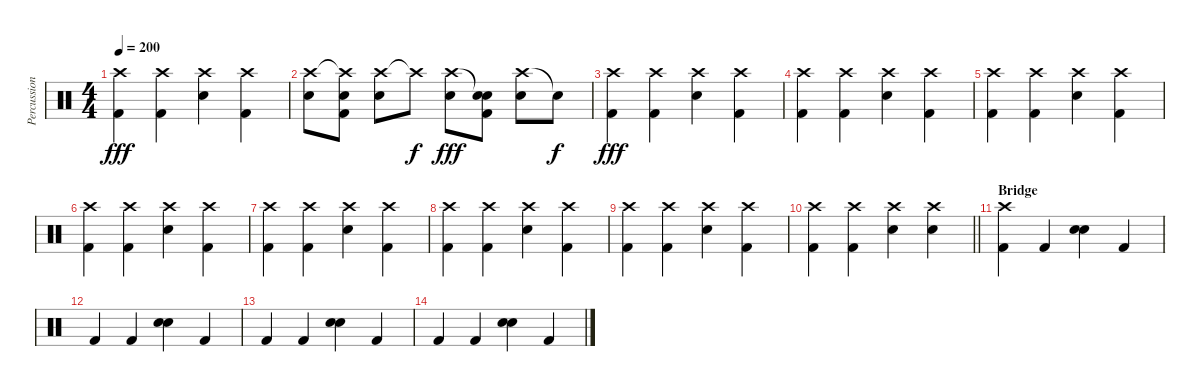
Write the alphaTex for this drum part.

\track ("Percussions" "Percussion") {instrument percussion}
\staff {score}
\articulation defaults
\ts (4 4)
\tempo 200
\clef neutral
\ks c
("Crash high (hit)" "Kick (hit) 2").4{dy fff} ("Crash high (hit)" "Kick (hit) 2").4 ("Crash high (hit)" "Electric Snare (hit)").4 ("Crash high (hit)" "Kick (hit) 2").4 |
("Crash high (hit)" "Electric Snare (hit)").8 ("Crash high (hit)"{t} "Electric Snare (hit)" "Kick (hit) 2").8 ("Crash high (hit)" "Electric Snare (hit)").8 "Crash high (hit)"{t}.8{dy f} ("Crash high (hit)" "Electric Snare (hit)").8{dy fff} ("Snare (hit)"{t} "Electric Snare (hit)" "Kick (hit) 2").8 ("Crash high (hit)" "Electric Snare (hit)").8 "Snare (hit)"{t}.8{dy f} |
("Crash high (hit)" "Kick (hit) 2").4{dy fff} ("Crash high (hit)" "Kick (hit) 2").4 ("Crash high (hit)" "Electric Snare (hit)").4 ("Crash high (hit)" "Kick (hit) 2").4 |
("Crash high (hit)" "Kick (hit) 2").4 ("Crash high (hit)" "Kick (hit) 2").4 ("Crash high (hit)" "Electric Snare (hit)").4 ("Crash high (hit)" "Kick (hit) 2").4 |
("Crash high (hit)" "Kick (hit) 2").4 ("Crash high (hit)" "Kick (hit) 2").4 ("Crash high (hit)" "Electric Snare (hit)").4 ("Crash high (hit)" "Kick (hit) 2").4 |
("Crash high (hit)" "Kick (hit) 2").4 ("Crash high (hit)" "Kick (hit) 2").4 ("Crash high (hit)" "Electric Snare (hit)").4 ("Crash high (hit)" "Kick (hit) 2").4 |
("Crash high (hit)" "Kick (hit) 2").4 ("Crash high (hit)" "Kick (hit) 2").4 ("Crash high (hit)" "Electric Snare (hit)").4 ("Crash high (hit)" "Kick (hit) 2").4 |
("Crash high (hit)" "Kick (hit) 2").4 ("Crash high (hit)" "Kick (hit) 2").4 ("Crash high (hit)" "Electric Snare (hit)").4 ("Crash high (hit)" "Kick (hit) 2").4 |
("Crash high (hit)" "Kick (hit) 2").4 ("Crash high (hit)" "Kick (hit) 2").4 ("Crash high (hit)" "Electric Snare (hit)").4 ("Crash high (hit)" "Kick (hit) 2").4 |
\barLineRight lightlight
("Crash high (hit)" "Kick (hit) 2").4 ("Crash high (hit)" "Kick (hit) 2").4 ("Crash high (hit)" "Electric Snare (hit)").4 ("Crash high (hit)" "Electric Snare (hit)").4 |
\section ("" "Bridge")
("Crash high (hit)" "Kick (hit) 2").4 "Kick (hit) 2".4 ("Electric Snare (hit)" "Electric Snare (hit)").4 "Kick (hit) 2".4 |
"Kick (hit) 2".4 "Kick (hit) 2".4 ("Electric Snare (hit)" "Electric Snare (hit)").4 "Kick (hit) 2".4 |
"Kick (hit) 2".4 "Kick (hit) 2".4 ("Electric Snare (hit)" "Electric Snare (hit)").4 "Kick (hit) 2".4 |
"Kick (hit) 2".4 "Kick (hit) 2".4 ("Electric Snare (hit)" "Electric Snare (hit)").4 "Kick (hit) 2".4
